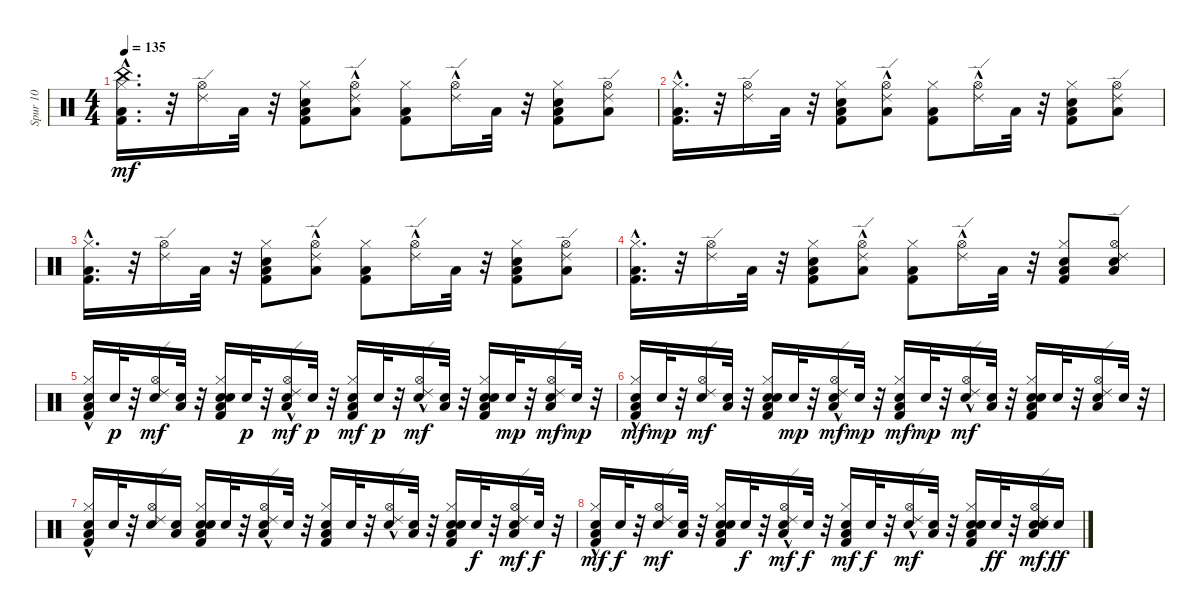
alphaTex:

\track ("Spur 10" "Spur 10") {instrument percussion}
\staff {score}
\articulation defaults
\ts (4 4)
\tempo 135
\clef neutral
\ks c
("Kick (hit) 2" "Low Tom (hit)" "Hi-Hat (closed)"{hac} "China (hit)").16{d dy mf} r.32 ("Ride (edge) 2" "Hi-Hat (open)").16 "Low Tom (hit)".32 r.32 ("Kick (hit) 2" "Hand Clap (hit)" "Low Tom (hit)" "Hi-Hat (closed)").8 ("Low Tom (hit)" "Hi-Hat (open)" "Ride (edge) 2"{hac}).8 ("Kick (hit) 2" "Low Tom (hit)" "Hi-Hat (closed)").8 ("Hi-Hat (open)" "Ride (edge) 2"{hac}).16 "Low Tom (hit)".32 r.32 ("Kick (hit) 2" "Hand Clap (hit)" "Low Tom (hit)" "Hi-Hat (closed)").8 ("Low Tom (hit)" "Hi-Hat (open)" "Ride (edge) 2").8 |
("Kick (hit) 2" "Low Tom (hit)" "Hi-Hat (closed)"{hac}).16{d} r.32 ("Ride (edge) 2" "Hi-Hat (open)").16 "Low Tom (hit)".32 r.32 ("Kick (hit) 2" "Hand Clap (hit)" "Low Tom (hit)" "Hi-Hat (closed)").8 ("Low Tom (hit)" "Hi-Hat (open)" "Ride (edge) 2"{hac}).8 ("Kick (hit) 2" "Low Tom (hit)" "Hi-Hat (closed)").8 ("Hi-Hat (open)" "Ride (edge) 2"{hac}).16 "Low Tom (hit)".32 r.32 ("Kick (hit) 2" "Hand Clap (hit)" "Low Tom (hit)" "Hi-Hat (closed)").8 ("Low Tom (hit)" "Hi-Hat (open)" "Ride (edge) 2").8 |
("Kick (hit) 2" "Low Tom (hit)" "Hi-Hat (closed)"{hac}).16{d} r.32 ("Ride (edge) 2" "Hi-Hat (open)").16 "Low Tom (hit)".32 r.32 ("Kick (hit) 2" "Hand Clap (hit)" "Low Tom (hit)" "Hi-Hat (closed)").8 ("Low Tom (hit)" "Hi-Hat (open)" "Ride (edge) 2"{hac}).8 ("Kick (hit) 2" "Low Tom (hit)" "Hi-Hat (closed)").8 ("Hi-Hat (open)" "Ride (edge) 2"{hac}).16 "Low Tom (hit)".32 r.32 ("Kick (hit) 2" "Hand Clap (hit)" "Low Tom (hit)" "Hi-Hat (closed)").8 ("Low Tom (hit)" "Hi-Hat (open)" "Ride (edge) 2").8 |
("Kick (hit) 2" "Low Tom (hit)" "Hi-Hat (closed)"{hac}).16{d} r.32 ("Ride (edge) 2" "Hi-Hat (open)").16 "Low Tom (hit)".32 r.32 ("Kick (hit) 2" "Hand Clap (hit)" "Low Tom (hit)" "Hi-Hat (closed)").8 ("Low Tom (hit)" "Hi-Hat (open)" "Ride (edge) 2"{hac}).8 ("Kick (hit) 2" "Low Tom (hit)" "Hi-Hat (closed)").8 ("Hi-Hat (open)" "Ride (edge) 2"{hac}).16 "Low Tom (hit)".32 r.32 ("Kick (hit) 2" "Hand Clap (hit)" "Low Tom (hit)" "Hi-Hat (closed)").8 ("Hand Clap (hit)" "Low Tom (hit)" "Hi-Hat (open)" "Ride (edge) 2").8 |
("Snare (hit) 2" "Kick (hit) 2" "Low Tom (hit)" "Hi-Hat (closed)"{hac}).16 "Snare (hit) 2".32{dy p} r.32 ("Snare (hit) 2" "Ride (edge) 2" "Hi-Hat (open)").16{dy mf} ("Snare (hit) 2" "Low Tom (hit)").32 r.32 ("Snare (hit) 2" "Kick (hit) 2" "Hand Clap (hit)" "Low Tom (hit)" "Hi-Hat (closed)").16 "Snare (hit) 2".32{dy p} r.32 ("Snare (hit) 2" "Low Tom (hit)" "Hi-Hat (open)" "Ride (edge) 2"{hac}).16{dy mf} "Snare (hit) 2".32{dy p} r.32 ("Snare (hit) 2" "Kick (hit) 2" "Low Tom (hit)" "Hi-Hat (closed)").16{dy mf} "Snare (hit) 2".32{dy p} r.32 ("Snare (hit) 2" "Hi-Hat (open)" "Ride (edge) 2"{hac}).16{dy mf} ("Snare (hit) 2" "Low Tom (hit)").32 r.32 ("Snare (hit) 2" "Kick (hit) 2" "Hand Clap (hit)" "Low Tom (hit)" "Hi-Hat (closed)").16 "Snare (hit) 2".32{dy mp} r.32 ("Snare (hit) 2" "Low Tom (hit)" "Hi-Hat (open)" "Ride (edge) 2").16{dy mf} "Snare (hit) 2".32{dy mp} r.32 |
("Snare (hit) 2" "Kick (hit) 2" "Low Tom (hit)" "Hi-Hat (closed)"{hac}).16{dy mf} "Snare (hit) 2".32{dy mp} r.32 ("Snare (hit) 2" "Ride (edge) 2" "Hi-Hat (open)").16{dy mf} ("Snare (hit) 2" "Low Tom (hit)").32 r.32 ("Snare (hit) 2" "Kick (hit) 2" "Hand Clap (hit)" "Low Tom (hit)" "Hi-Hat (closed)").16 "Snare (hit) 2".32{dy mp} r.32 ("Snare (hit) 2" "Low Tom (hit)" "Hi-Hat (open)" "Ride (edge) 2"{hac}).16{dy mf} "Snare (hit) 2".32{dy mp} r.32 ("Snare (hit) 2" "Kick (hit) 2" "Low Tom (hit)" "Hi-Hat (closed)").16{dy mf} "Snare (hit) 2".32{dy mp} r.32 ("Snare (hit) 2" "Hi-Hat (open)" "Ride (edge) 2"{hac}).16{dy mf} ("Snare (hit) 2" "Low Tom (hit)").32 r.32 ("Snare (hit) 2" "Kick (hit) 2" "Hand Clap (hit)" "Low Tom (hit)" "Hi-Hat (closed)").16 "Snare (hit) 2".32 r.32 ("Snare (hit) 2" "Low Tom (hit)" "Hi-Hat (open)" "Ride (edge) 2").16 "Snare (hit) 2".32 r.32 |
("Snare (hit) 2" "Kick (hit) 2" "Low Tom (hit)" "Hi-Hat (closed)"{hac}).16 "Snare (hit) 2".32 r.32 ("Snare (hit) 2" "Ride (edge) 2" "Hi-Hat (open)").16 ("Snare (hit) 2" "Low Tom (hit)").16 ("Snare (hit) 2" "Kick (hit) 2" "Hand Clap (hit)" "Low Tom (hit)" "Hi-Hat (closed)").16 "Snare (hit) 2".32 r.32 ("Snare (hit) 2" "Low Tom (hit)" "Hi-Hat (open)" "Ride (edge) 2"{hac}).16 "Snare (hit) 2".32 r.32 ("Snare (hit) 2" "Kick (hit) 2" "Low Tom (hit)" "Hi-Hat (closed)").16 "Snare (hit) 2".32 r.32 ("Snare (hit) 2" "Hi-Hat (open)" "Ride (edge) 2"{hac}).16 ("Snare (hit) 2" "Low Tom (hit)").32 r.32 ("Snare (hit) 2" "Kick (hit) 2" "Hand Clap (hit)" "Low Tom (hit)" "Hi-Hat (closed)").16 "Snare (hit) 2".32{dy f} r.32 ("Snare (hit) 2" "Low Tom (hit)" "Hi-Hat (open)" "Ride (edge) 2").16{dy mf} "Snare (hit) 2".32{dy f} r.32 |
("Snare (hit) 2" "Kick (hit) 2" "Low Tom (hit)" "Hi-Hat (closed)"{hac}).16{dy mf} "Snare (hit) 2".32{dy f} r.32 ("Snare (hit) 2" "Ride (edge) 2" "Hi-Hat (open)").16{dy mf} ("Snare (hit) 2" "Low Tom (hit)").32 r.32 ("Snare (hit) 2" "Kick (hit) 2" "Hand Clap (hit)" "Low Tom (hit)" "Hi-Hat (closed)").16 "Snare (hit) 2".32{dy f} r.32 ("Snare (hit) 2" "Low Tom (hit)" "Hi-Hat (open)" "Ride (edge) 2"{hac}).16{dy mf} "Snare (hit) 2".32{dy f} r.32 ("Snare (hit) 2" "Kick (hit) 2" "Low Tom (hit)" "Hi-Hat (closed)").16{dy mf} "Snare (hit) 2".32{dy f} r.32 ("Snare (hit) 2" "Hi-Hat (open)" "Ride (edge) 2"{hac}).16{dy mf} ("Snare (hit) 2" "Low Tom (hit)").32 r.32 ("Snare (hit) 2" "Kick (hit) 2" "Hand Clap (hit)" "Low Tom (hit)" "Hi-Hat (closed)").16 "Snare (hit) 2".32{dy ff} r.32 ("Snare (hit) 2" "Hand Clap (hit)" "Low Tom (hit)" "Hi-Hat (open)" "Ride (edge) 2").16{dy mf} "Snare (hit) 2".16{dy ff}
